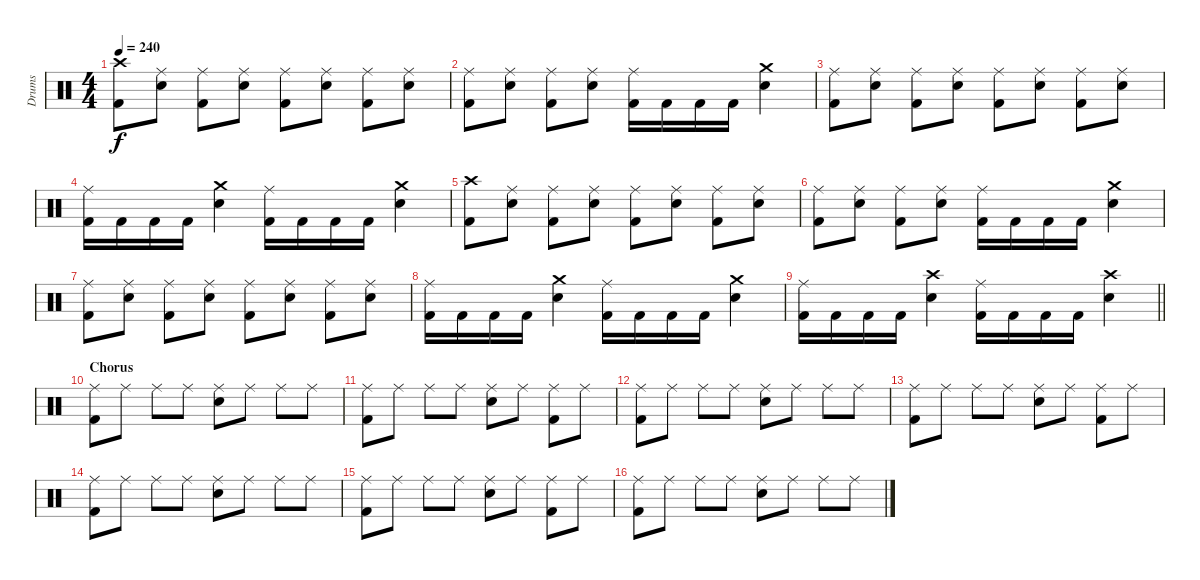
\track ("Drums" "Drums") {instrument percussion}
\staff {score}
\articulation defaults
\ts (4 4)
\tempo 240
\clef neutral
\ks c
("Crash high (hit)" "Kick (hit) 2").8{dy f} ("Ride (middle)" "Snare (hit) 2").8 ("Ride (middle)" "Kick (hit) 2").8 ("Ride (middle)" "Snare (hit) 2").8 ("Ride (middle)" "Kick (hit) 2").8 ("Ride (middle)" "Snare (hit) 2").8 ("Ride (middle)" "Kick (hit) 2").8 ("Ride (middle)" "Snare (hit) 2").8 |
("Ride (middle)" "Kick (hit) 2").8 ("Ride (middle)" "Snare (hit) 2").8 ("Ride (middle)" "Kick (hit) 2").8 ("Ride (middle)" "Snare (hit) 2").8 ("Ride (middle)" "Kick (hit) 2").16 "Kick (hit) 2".16 "Kick (hit) 2".16 "Kick (hit) 2".16 ("Crash medium (hit)" "Snare (hit) 2").4 |
("Ride (middle)" "Kick (hit) 2").8 ("Ride (middle)" "Snare (hit) 2").8 ("Ride (middle)" "Kick (hit) 2").8 ("Ride (middle)" "Snare (hit) 2").8 ("Ride (middle)" "Kick (hit) 2").8 ("Ride (middle)" "Snare (hit) 2").8 ("Ride (middle)" "Kick (hit) 2").8 ("Ride (middle)" "Snare (hit) 2").8 |
("Ride (middle)" "Kick (hit) 2").16 "Kick (hit) 2".16 "Kick (hit) 2".16 "Kick (hit) 2".16 ("Crash medium (hit)" "Snare (hit) 2").4 ("Ride (middle)" "Kick (hit) 2").16 "Kick (hit) 2".16 "Kick (hit) 2".16 "Kick (hit) 2".16 ("Crash medium (hit)" "Snare (hit) 2").4 |
("Crash high (hit)" "Kick (hit) 2").8 ("Ride (middle)" "Snare (hit) 2").8 ("Ride (middle)" "Kick (hit) 2").8 ("Ride (middle)" "Snare (hit) 2").8 ("Ride (middle)" "Kick (hit) 2").8 ("Ride (middle)" "Snare (hit) 2").8 ("Ride (middle)" "Kick (hit) 2").8 ("Ride (middle)" "Snare (hit) 2").8 |
("Ride (middle)" "Kick (hit) 2").8 ("Ride (middle)" "Snare (hit) 2").8 ("Ride (middle)" "Kick (hit) 2").8 ("Ride (middle)" "Snare (hit) 2").8 ("Ride (middle)" "Kick (hit) 2").16 "Kick (hit) 2".16 "Kick (hit) 2".16 "Kick (hit) 2".16 ("Crash medium (hit)" "Snare (hit) 2").4 |
("Ride (middle)" "Kick (hit) 2").8 ("Ride (middle)" "Snare (hit) 2").8 ("Ride (middle)" "Kick (hit) 2").8 ("Ride (middle)" "Snare (hit) 2").8 ("Ride (middle)" "Kick (hit) 2").8 ("Ride (middle)" "Snare (hit) 2").8 ("Ride (middle)" "Kick (hit) 2").8 ("Ride (middle)" "Snare (hit) 2").8 |
("Ride (middle)" "Kick (hit) 2").16 "Kick (hit) 2".16 "Kick (hit) 2".16 "Kick (hit) 2".16 ("Crash medium (hit)" "Snare (hit) 2").4 ("Ride (middle)" "Kick (hit) 2").16 "Kick (hit) 2".16 "Kick (hit) 2".16 "Kick (hit) 2".16 ("Crash medium (hit)" "Snare (hit) 2").4 |
\barLineRight lightlight
("Ride (middle)" "Kick (hit) 2").16 "Kick (hit) 2".16 "Kick (hit) 2".16 "Kick (hit) 2".16 ("Crash high (hit)" "Snare (hit) 2").4 ("Ride (middle)" "Kick (hit) 2").16 "Kick (hit) 2".16 "Kick (hit) 2".16 "Kick (hit) 2".16 ("Crash high (hit)" "Snare (hit) 2").4 |
\section ("" "Chorus")
("Ride (middle)" "Kick (hit) 2").8 "Ride (middle)".8 "Ride (middle)".8 "Ride (middle)".8 ("Ride (middle)" "Snare (hit) 2").8 "Ride (middle)".8 "Ride (middle)".8 "Ride (middle)".8 |
("Ride (middle)" "Kick (hit) 2").8 "Ride (middle)".8 "Ride (middle)".8 "Ride (middle)".8 ("Ride (middle)" "Snare (hit) 2").8 "Ride (middle)".8 ("Ride (middle)" "Kick (hit) 2").8 "Ride (middle)".8 |
("Ride (middle)" "Kick (hit) 2").8 "Ride (middle)".8 "Ride (middle)".8 "Ride (middle)".8 ("Ride (middle)" "Snare (hit) 2").8 "Ride (middle)".8 "Ride (middle)".8 "Ride (middle)".8 |
("Ride (middle)" "Kick (hit) 2").8 "Ride (middle)".8 "Ride (middle)".8 "Ride (middle)".8 ("Ride (middle)" "Snare (hit) 2").8 "Ride (middle)".8 ("Ride (middle)" "Kick (hit) 2").8 "Ride (middle)".8 |
("Ride (middle)" "Kick (hit) 2").8 "Ride (middle)".8 "Ride (middle)".8 "Ride (middle)".8 ("Ride (middle)" "Snare (hit) 2").8 "Ride (middle)".8 "Ride (middle)".8 "Ride (middle)".8 |
("Ride (middle)" "Kick (hit) 2").8 "Ride (middle)".8 "Ride (middle)".8 "Ride (middle)".8 ("Ride (middle)" "Snare (hit) 2").8 "Ride (middle)".8 ("Ride (middle)" "Kick (hit) 2").8 "Ride (middle)".8 |
("Ride (middle)" "Kick (hit) 2").8 "Ride (middle)".8 "Ride (middle)".8 "Ride (middle)".8 ("Ride (middle)" "Snare (hit) 2").8 "Ride (middle)".8 "Ride (middle)".8 "Ride (middle)".8
